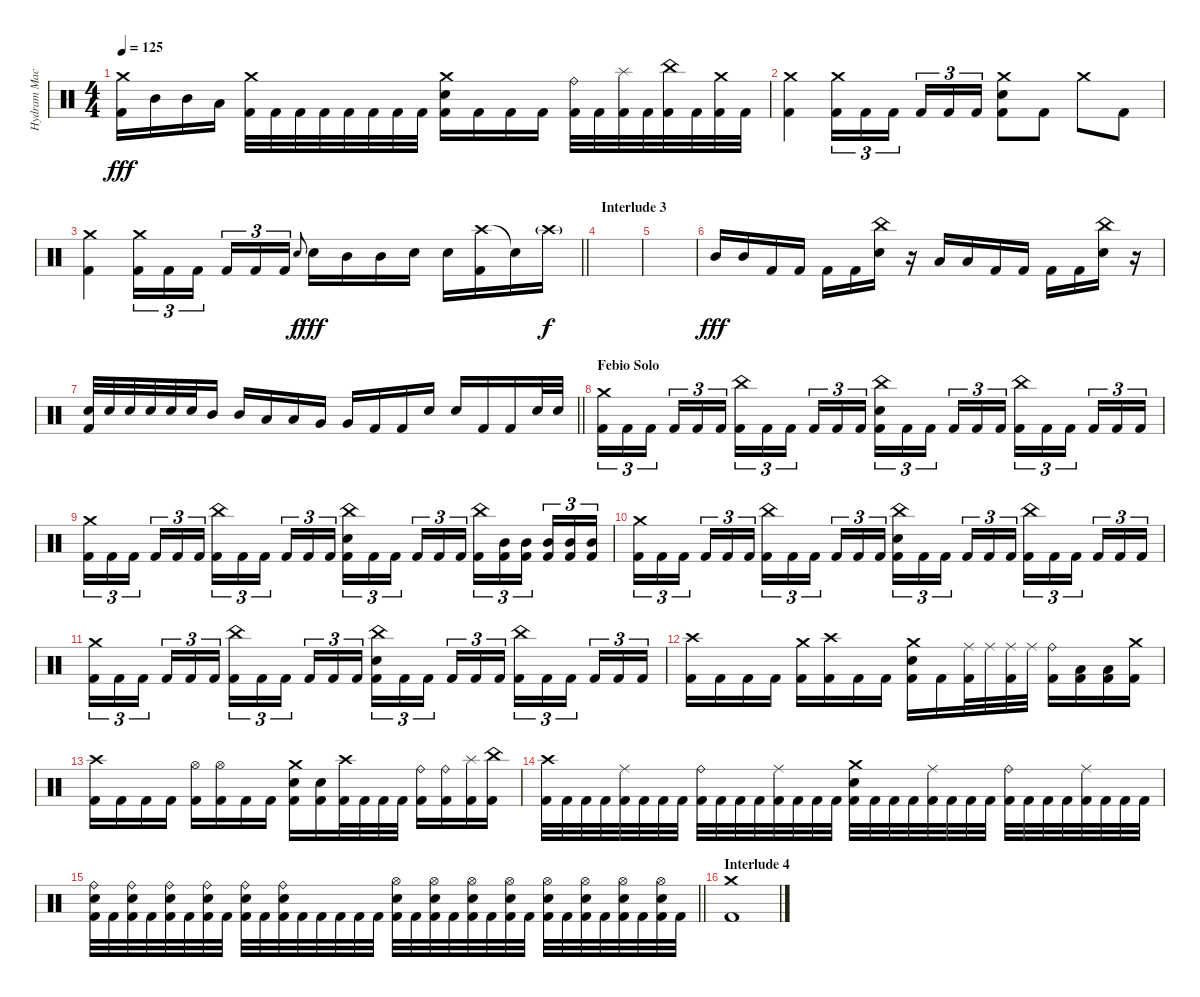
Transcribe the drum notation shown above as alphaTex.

\track ("Hydram Machine" "Hydram Mac") {instrument percussion}
\staff {score}
\articulation defaults
\ts (4 4)
\tempo 125
\clef neutral
\ks c
("Crash medium (hit)" "Kick (hit) 2").16{dy fff} "Mid Tom (hit)".16 "Mid Tom (hit)".16 "Low Tom (hit)".16 ("Crash medium (hit)" "Kick (hit) 2").32 "Kick (hit) 2".32 "Kick (hit) 2".32 "Kick (hit) 2".32 "Kick (hit) 2".32 "Kick (hit) 2".32 "Kick (hit) 2".32 "Kick (hit) 2".32 ("Crash medium (hit)" "Electric Snare (hit)" "Kick (hit) 2").16 "Kick (hit) 2".16 "Kick (hit) 2".16 "Kick (hit) 2".16 ("Ride (bell)" "Kick (hit) 2").32 "Kick (hit) 2".32 ("Splash (hit)" "Kick (hit) 2").32 "Kick (hit) 2".32 ("China (hit)" "Kick (hit) 2").32 "Kick (hit) 2".32 ("Crash medium (hit)" "Kick (hit) 2").32 "Kick (hit) 2".32 |
("Crash medium (hit)" "Kick (hit) 2").4 ("Crash medium (hit)" "Kick (hit) 2").16{tu (3 2)} "Kick (hit) 2".16{tu (3 2)} "Kick (hit) 2".16{tu (3 2) beam splitsecondary} "Kick (hit) 2".16{tu (3 2)} "Kick (hit) 2".16{tu (3 2)} "Kick (hit) 2".16{tu (3 2)} ("Crash medium (hit)" "Electric Snare (hit)" "Kick (hit) 2").8 "Kick (hit) 2".8 "Crash medium (hit)".8 "Kick (hit) 2".8 |
\barLineRight lightlight
("Crash medium (hit)" "Kick (hit) 2").4 ("Crash medium (hit)" "Kick (hit) 2").16{tu (3 2)} "Kick (hit) 2".16{tu (3 2)} "Kick (hit) 2".16{tu (3 2) beam splitsecondary} "Kick (hit) 2".16{tu (3 2)} "Kick (hit) 2".16{tu (3 2)} "Kick (hit) 2".16{tu (3 2)} "Electric Snare (hit)".8{gr onbeat dy f} "Electric Snare (hit)".16{dy fff} "Mid Tom (hit)".16 "Mid Tom (hit)".16 "Electric Snare (hit)".16 "Electric Snare (hit)".16 ("Crash high (hit)" "Kick (hit) 2").16 "Snare (hit)"{t}.16 "Crash high (hit)"{g}.16{dy f} |
\section ("" "Interlude 3")
|
|
"Mid Tom (hit)".16{dy fff} "Mid Tom (hit)".16 "Kick (hit) 2".16 "Kick (hit) 2".16 "Kick (hit) 2".16 "Kick (hit) 2".16 ("China (hit)" "Electric Snare (hit)").16 r.16 "Low Tom (hit)".16 "Low Tom (hit)".16 "Kick (hit) 2".16 "Kick (hit) 2".16 "Kick (hit) 2".16 "Kick (hit) 2".16 ("China (hit)" "Electric Snare (hit)").16 r.16 |
\barLineRight lightlight
("Electric Snare (hit)" "Kick (hit) 2").32 "Electric Snare (hit)".32 "Electric Snare (hit)".32 "Electric Snare (hit)".32 "Electric Snare (hit)".32 "Electric Snare (hit)".32 "Mid Tom (hit)".16 "Mid Tom (hit)".16 "Low Tom (hit)".16 "Low Tom (hit)".16 "Very Low Tom (hit)".16 "Very Low Tom (hit)".16 "Kick (hit) 2".16 "Kick (hit) 2".16 "Electric Snare (hit)".16 "Electric Snare (hit)".16 "Kick (hit) 2".16 "Kick (hit) 2".16 "Electric Snare (hit)".32 "Electric Snare (hit)".32 |
\section ("" "Febio Solo ")
("Crash medium (hit)" "Kick (hit) 2").16{tu (3 2)} "Kick (hit) 2".16{tu (3 2)} "Kick (hit) 2".16{tu (3 2) beam splitsecondary} "Kick (hit) 2".16{tu (3 2)} "Kick (hit) 2".16{tu (3 2)} "Kick (hit) 2".16{tu (3 2)} ("China (hit)" "Kick (hit) 2").16{tu (3 2)} "Kick (hit) 2".16{tu (3 2)} "Kick (hit) 2".16{tu (3 2) beam splitsecondary} "Kick (hit) 2".16{tu (3 2)} "Kick (hit) 2".16{tu (3 2)} "Kick (hit) 2".16{tu (3 2)} ("China (hit)" "Electric Snare (hit)" "Kick (hit) 2").16{tu (3 2)} "Kick (hit) 2".16{tu (3 2)} "Kick (hit) 2".16{tu (3 2) beam splitsecondary} "Kick (hit) 2".16{tu (3 2)} "Kick (hit) 2".16{tu (3 2)} "Kick (hit) 2".16{tu (3 2)} ("China (hit)" "Kick (hit) 2").16{tu (3 2)} "Kick (hit) 2".16{tu (3 2)} "Kick (hit) 2".16{tu (3 2) beam splitsecondary} "Kick (hit) 2".16{tu (3 2)} "Kick (hit) 2".16{tu (3 2)} "Kick (hit) 2".16{tu (3 2)} |
("Crash medium (hit)" "Kick (hit) 2").16{tu (3 2)} "Kick (hit) 2".16{tu (3 2)} "Kick (hit) 2".16{tu (3 2) beam splitsecondary} "Kick (hit) 2".16{tu (3 2)} "Kick (hit) 2".16{tu (3 2)} "Kick (hit) 2".16{tu (3 2)} ("China (hit)" "Kick (hit) 2").16{tu (3 2)} "Kick (hit) 2".16{tu (3 2)} "Kick (hit) 2".16{tu (3 2) beam splitsecondary} "Kick (hit) 2".16{tu (3 2)} "Kick (hit) 2".16{tu (3 2)} "Kick (hit) 2".16{tu (3 2)} ("China (hit)" "Electric Snare (hit)" "Kick (hit) 2").16{tu (3 2)} "Kick (hit) 2".16{tu (3 2)} "Kick (hit) 2".16{tu (3 2) beam splitsecondary} "Kick (hit) 2".16{tu (3 2)} "Kick (hit) 2".16{tu (3 2)} "Kick (hit) 2".16{tu (3 2)} ("China (hit)" "Kick (hit) 2").16{tu (3 2)} ("Mid Tom (hit)" "Kick (hit) 2").16{tu (3 2)} ("Mid Tom (hit)" "Kick (hit) 2").16{tu (3 2) beam splitsecondary} ("Mid Tom (hit)" "Kick (hit) 2").16{tu (3 2)} ("Mid Tom (hit)" "Kick (hit) 2").16{tu (3 2)} ("Mid Tom (hit)" "Kick (hit) 2").16{tu (3 2)} |
("Crash medium (hit)" "Kick (hit) 2").16{tu (3 2)} "Kick (hit) 2".16{tu (3 2)} "Kick (hit) 2".16{tu (3 2) beam splitsecondary} "Kick (hit) 2".16{tu (3 2)} "Kick (hit) 2".16{tu (3 2)} "Kick (hit) 2".16{tu (3 2)} ("China (hit)" "Kick (hit) 2").16{tu (3 2)} "Kick (hit) 2".16{tu (3 2)} "Kick (hit) 2".16{tu (3 2) beam splitsecondary} "Kick (hit) 2".16{tu (3 2)} "Kick (hit) 2".16{tu (3 2)} "Kick (hit) 2".16{tu (3 2)} ("China (hit)" "Electric Snare (hit)" "Kick (hit) 2").16{tu (3 2)} "Kick (hit) 2".16{tu (3 2)} "Kick (hit) 2".16{tu (3 2) beam splitsecondary} "Kick (hit) 2".16{tu (3 2)} "Kick (hit) 2".16{tu (3 2)} "Kick (hit) 2".16{tu (3 2)} ("China (hit)" "Kick (hit) 2").16{tu (3 2)} "Kick (hit) 2".16{tu (3 2)} "Kick (hit) 2".16{tu (3 2) beam splitsecondary} "Kick (hit) 2".16{tu (3 2)} "Kick (hit) 2".16{tu (3 2)} "Kick (hit) 2".16{tu (3 2)} |
("Crash medium (hit)" "Kick (hit) 2").16{tu (3 2)} "Kick (hit) 2".16{tu (3 2)} "Kick (hit) 2".16{tu (3 2) beam splitsecondary} "Kick (hit) 2".16{tu (3 2)} "Kick (hit) 2".16{tu (3 2)} "Kick (hit) 2".16{tu (3 2)} ("China (hit)" "Kick (hit) 2").16{tu (3 2)} "Kick (hit) 2".16{tu (3 2)} "Kick (hit) 2".16{tu (3 2) beam splitsecondary} "Kick (hit) 2".16{tu (3 2)} "Kick (hit) 2".16{tu (3 2)} "Kick (hit) 2".16{tu (3 2)} ("China (hit)" "Electric Snare (hit)" "Kick (hit) 2").16{tu (3 2)} "Kick (hit) 2".16{tu (3 2)} "Kick (hit) 2".16{tu (3 2) beam splitsecondary} "Kick (hit) 2".16{tu (3 2)} "Kick (hit) 2".16{tu (3 2)} "Kick (hit) 2".16{tu (3 2)} ("China (hit)" "Kick (hit) 2").16{tu (3 2)} "Kick (hit) 2".16{tu (3 2)} "Kick (hit) 2".16{tu (3 2) beam splitsecondary} "Kick (hit) 2".16{tu (3 2)} "Kick (hit) 2".16{tu (3 2)} "Kick (hit) 2".16{tu (3 2)} |
("Crash high (hit)" "Kick (hit) 2").16 "Kick (hit) 2".16 "Kick (hit) 2".16 "Kick (hit) 2".16 ("Crash medium (hit)" "Kick (hit) 2").16 ("Crash high (hit)" "Kick (hit) 2").16 "Kick (hit) 2".16 "Kick (hit) 2".16 ("Crash medium (hit)" "Electric Snare (hit)" "Kick (hit) 2").16 "Kick (hit) 2".16 ("Ride (middle)" "Kick (hit) 2").32 "Ride (middle)".32 ("Ride (middle)" "Kick (hit) 2").32 "Ride (middle)".32 ("Ride (bell)" "Kick (hit) 2").16 ("Low Tom (hit)" "Kick (hit) 2").16 ("Low Tom (hit)" "Kick (hit) 2").16 ("Crash medium (hit)" "Kick (hit) 2").16 |
("Crash high (hit)" "Kick (hit) 2").16 "Kick (hit) 2".16 "Kick (hit) 2".16 "Kick (hit) 2".16 ("Hi-Hat (open)" "Kick (hit) 2").16 ("Hi-Hat (open)" "Kick (hit) 2").16 "Kick (hit) 2".16 "Kick (hit) 2".16 ("Crash medium (hit)" "Electric Snare (hit)" "Kick (hit) 2").16 ("Electric Snare (hit)" "Kick (hit) 2").16 ("Crash high (hit)" "Kick (hit) 2").32 "Kick (hit) 2".32 "Kick (hit) 2".32 "Kick (hit) 2".32 ("Ride (bell)" "Kick (hit) 2").16 ("Ride (bell)" "Kick (hit) 2").16 ("Splash (hit)" "Kick (hit) 2").16 ("China (hit)" "Kick (hit) 2").16 |
("Crash high (hit)" "Kick (hit) 2").32 "Kick (hit) 2".32 "Kick (hit) 2".32 "Kick (hit) 2".32 ("Ride (middle)" "Kick (hit) 2").32 "Kick (hit) 2".32 "Kick (hit) 2".32 "Kick (hit) 2".32 ("Ride (bell)" "Kick (hit) 2").32 "Kick (hit) 2".32 "Kick (hit) 2".32 "Kick (hit) 2".32 ("Ride (middle)" "Kick (hit) 2").32 "Kick (hit) 2".32 "Kick (hit) 2".32 "Kick (hit) 2".32 ("Crash medium (hit)" "Electric Snare (hit)" "Kick (hit) 2").32 "Kick (hit) 2".32 "Kick (hit) 2".32 "Kick (hit) 2".32 ("Ride (middle)" "Kick (hit) 2").32 "Kick (hit) 2".32 "Kick (hit) 2".32 "Kick (hit) 2".32 ("Ride (bell)" "Kick (hit) 2").32 "Kick (hit) 2".32 "Kick (hit) 2".32 "Kick (hit) 2".32 ("Ride (middle)" "Kick (hit) 2").32 "Kick (hit) 2".32 "Kick (hit) 2".32 "Kick (hit) 2".32 |
\barLineRight lightlight
("Ride (bell)" "Electric Snare (hit)" "Kick (hit) 2").32 "Kick (hit) 2".32 ("Ride (bell)" "Electric Snare (hit)" "Kick (hit) 2").32 "Kick (hit) 2".32 ("Ride (bell)" "Electric Snare (hit)" "Kick (hit) 2").32 "Kick (hit) 2".32 ("Ride (bell)" "Electric Snare (hit)" "Kick (hit) 2").32 "Kick (hit) 2".32 ("Ride (bell)" "Electric Snare (hit)" "Kick (hit) 2").32 "Kick (hit) 2".32 ("Ride (bell)" "Electric Snare (hit)" "Kick (hit) 2").32 "Kick (hit) 2".32 "Kick (hit) 2".32 "Kick (hit) 2".32 "Kick (hit) 2".32 "Kick (hit) 2".32 ("Hi-Hat (open)" "Electric Snare (hit)" "Kick (hit) 2").32 "Kick (hit) 2".32 ("Hi-Hat (open)" "Electric Snare (hit)" "Kick (hit) 2").32 "Kick (hit) 2".32 ("Hi-Hat (open)" "Electric Snare (hit)" "Kick (hit) 2").32 "Kick (hit) 2".32 ("Hi-Hat (open)" "Electric Snare (hit)" "Kick (hit) 2").32 "Kick (hit) 2".32 ("Hi-Hat (open)" "Electric Snare (hit)" "Kick (hit) 2").32 "Kick (hit) 2".32 ("Hi-Hat (open)" "Electric Snare (hit)" "Kick (hit) 2").32 "Kick (hit) 2".32 ("Hi-Hat (open)" "Electric Snare (hit)" "Kick (hit) 2").32 "Kick (hit) 2".32 ("Hi-Hat (open)" "Electric Snare (hit)" "Kick (hit) 2").32 "Kick (hit) 2".32 |
\section ("" "Interlude 4")
("Crash medium (hit)" "Kick (hit) 2").1
